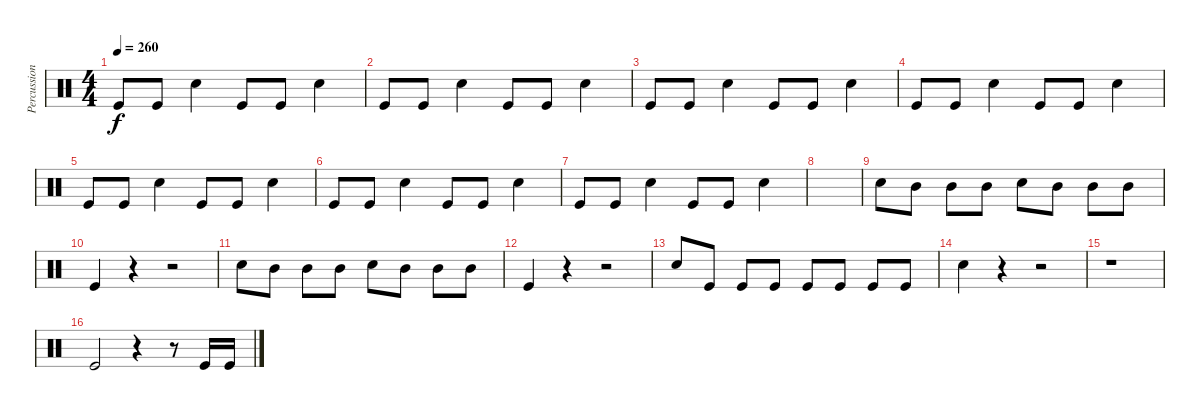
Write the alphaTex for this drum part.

\track ("Percussion" "Percussion") {instrument percussion}
\staff {score}
\articulation defaults
\ts (4 4)
\tempo 260
\clef neutral
\ks c "Kick (hit)".8{dy f} "Kick (hit)".8 "Electric Snare (hit)".4 "Kick (hit)".8 "Kick (hit)".8 "Electric Snare (hit)".4
|
"Kick (hit)".8 "Kick (hit)".8 "Electric Snare (hit)".4 "Kick (hit)".8 "Kick (hit)".8 "Electric Snare (hit)".4 |
"Kick (hit)".8 "Kick (hit)".8 "Electric Snare (hit)".4 "Kick (hit)".8 "Kick (hit)".8 "Electric Snare (hit)".4 |
"Kick (hit)".8 "Kick (hit)".8 "Electric Snare (hit)".4 "Kick (hit)".8 "Kick (hit)".8 "Electric Snare (hit)".4 |
"Kick (hit)".8 "Kick (hit)".8 "Electric Snare (hit)".4 "Kick (hit)".8 "Kick (hit)".8 "Electric Snare (hit)".4 |
"Kick (hit)".8 "Kick (hit)".8 "Electric Snare (hit)".4 "Kick (hit)".8 "Kick (hit)".8 "Electric Snare (hit)".4 |
"Kick (hit)".8 "Kick (hit)".8 "Electric Snare (hit)".4 "Kick (hit)".8 "Kick (hit)".8 "Electric Snare (hit)".4 |
|
"Snare (hit) 2".8 "Mid Tom (hit)".8 "Mid Tom (hit)".8 "Mid Tom (hit)".8 "Snare (hit) 2".8 "Mid Tom (hit)".8 "Mid Tom (hit)".8 "Mid Tom (hit)".8 |
"Kick (hit)".4 r.4 r.2 |
"Snare (hit) 2".8 "Mid Tom (hit)".8 "Mid Tom (hit)".8 "Mid Tom (hit)".8 "Snare (hit) 2".8 "Mid Tom (hit)".8 "Mid Tom (hit)".8 "Mid Tom (hit)".8 |
"Kick (hit)".4 r.4 r.2 |
"Snare (hit) 2".8 "Kick (hit)".8 "Kick (hit)".8 "Kick (hit)".8 "Kick (hit)".8 "Kick (hit)".8 "Kick (hit)".8 "Kick (hit)".8 |
"Snare (hit) 2".4 r.4 r.2 |
r.1 |
"Kick (hit)".2 r.4 r.8 "Kick (hit)".16 "Kick (hit)".16
